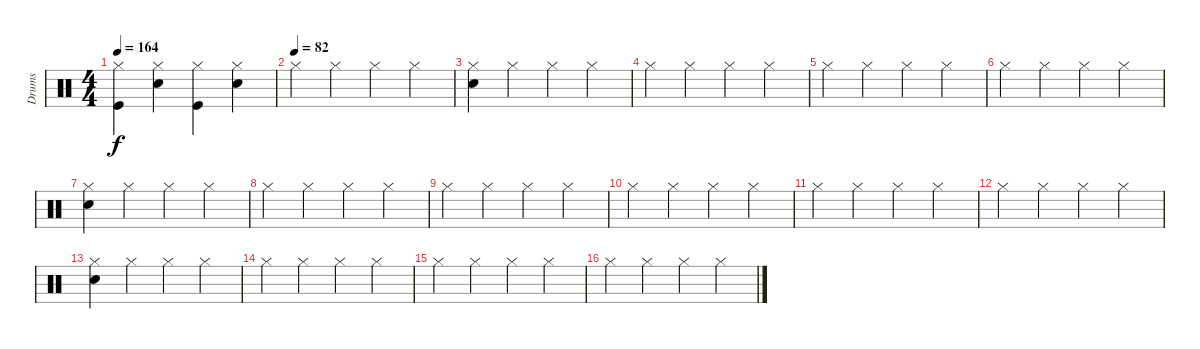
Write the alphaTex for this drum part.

\track ("Drums" "Drums") {instrument percussion}
\staff {score}
\articulation defaults
\ts (4 4)
\tempo 164
\clef neutral
\ks c
("Hi-Hat (closed)" "Kick (hit)").4{dy f} ("Hi-Hat (closed)" "Snare (hit) 2").4 ("Hi-Hat (closed)" "Kick (hit)").4 ("Hi-Hat (closed)" "Snare (hit) 2").4 |
\tempo (82)
"Hi-Hat (closed)".4 "Hi-Hat (closed)".4 "Hi-Hat (closed)".4 "Hi-Hat (closed)".4 |
("Electric Snare (hit)" "Hi-Hat (closed)").4 "Hi-Hat (closed)".4 "Hi-Hat (closed)".4 "Hi-Hat (closed)".4 |
"Hi-Hat (closed)".4 "Hi-Hat (closed)".4 "Hi-Hat (closed)".4 "Hi-Hat (closed)".4 |
"Hi-Hat (closed)".4 "Hi-Hat (closed)".4 "Hi-Hat (closed)".4 "Hi-Hat (closed)".4 |
"Hi-Hat (closed)".4 "Hi-Hat (closed)".4 "Hi-Hat (closed)".4 "Hi-Hat (closed)".4 |
("Electric Snare (hit)" "Hi-Hat (closed)").4 "Hi-Hat (closed)".4 "Hi-Hat (closed)".4 "Hi-Hat (closed)".4 |
"Hi-Hat (closed)".4 "Hi-Hat (closed)".4 "Hi-Hat (closed)".4 "Hi-Hat (closed)".4 |
"Hi-Hat (closed)".4 "Hi-Hat (closed)".4 "Hi-Hat (closed)".4 "Hi-Hat (closed)".4 |
"Hi-Hat (closed)".4 "Hi-Hat (closed)".4 "Hi-Hat (closed)".4 "Hi-Hat (closed)".4 |
"Hi-Hat (closed)".4 "Hi-Hat (closed)".4 "Hi-Hat (closed)".4 "Hi-Hat (closed)".4 |
"Hi-Hat (closed)".4 "Hi-Hat (closed)".4 "Hi-Hat (closed)".4 "Hi-Hat (closed)".4 |
("Electric Snare (hit)" "Hi-Hat (closed)").4 "Hi-Hat (closed)".4 "Hi-Hat (closed)".4 "Hi-Hat (closed)".4 |
"Hi-Hat (closed)".4 "Hi-Hat (closed)".4 "Hi-Hat (closed)".4 "Hi-Hat (closed)".4 |
"Hi-Hat (closed)".4 "Hi-Hat (closed)".4 "Hi-Hat (closed)".4 "Hi-Hat (closed)".4 |
"Hi-Hat (closed)".4 "Hi-Hat (closed)".4 "Hi-Hat (closed)".4 "Hi-Hat (closed)".4
